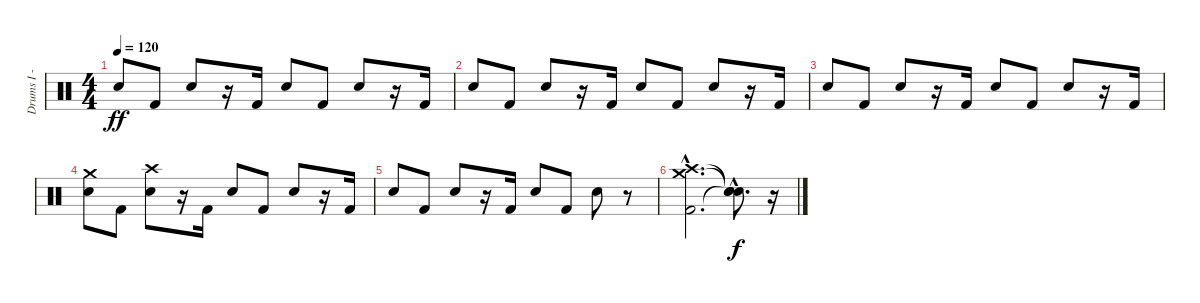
\track ("Drums I - Bobby Schayer" "Drums I - ") {instrument percussion}
\staff {score}
\articulation defaults
\ts (4 4)
\tempo 120
\clef neutral
\ks c "Snare (hit) 2".8{dy ff} "Kick (hit) 2".8 "Snare (hit) 2".8
r.16 "Kick (hit) 2".16 "Snare (hit) 2".8 "Kick (hit) 2".8 "Snare (hit) 2".8 r.16 "Kick (hit) 2".16 |
"Snare (hit) 2".8 "Kick (hit) 2".8 "Snare (hit) 2".8 r.16 "Kick (hit) 2".16 "Snare (hit) 2".8 "Kick (hit) 2".8 "Snare (hit) 2".8 r.16 "Kick (hit) 2".16 |
"Snare (hit) 2".8 "Kick (hit) 2".8 "Snare (hit) 2".8 r.16 "Kick (hit) 2".16 "Snare (hit) 2".8 "Kick (hit) 2".8 "Snare (hit) 2".8 r.16 "Kick (hit) 2".16 |
("Snare (hit) 2" "Crash medium (hit)").8 "Kick (hit) 2".8 ("Snare (hit) 2" "Crash high (hit)").8 r.16 "Kick (hit) 2".16 "Snare (hit) 2".8 "Kick (hit) 2".8 "Snare (hit) 2".8 r.16 "Kick (hit) 2".16 |
"Snare (hit) 2".8 "Kick (hit) 2".8 "Snare (hit) 2".8 r.16 "Kick (hit) 2".16 "Snare (hit) 2".8 "Kick (hit) 2".8 "Snare (hit) 2".8 r.8 |
("Kick (hit) 2"{hac} "Crash high (hit)"{hac} "Crash medium (hit)"{hac}).2{d} ("Snare (hit)"{hac t} "Snare (hit)"{hac t} "Snare (hit)"{hac t}).8{d dy f} r.16
